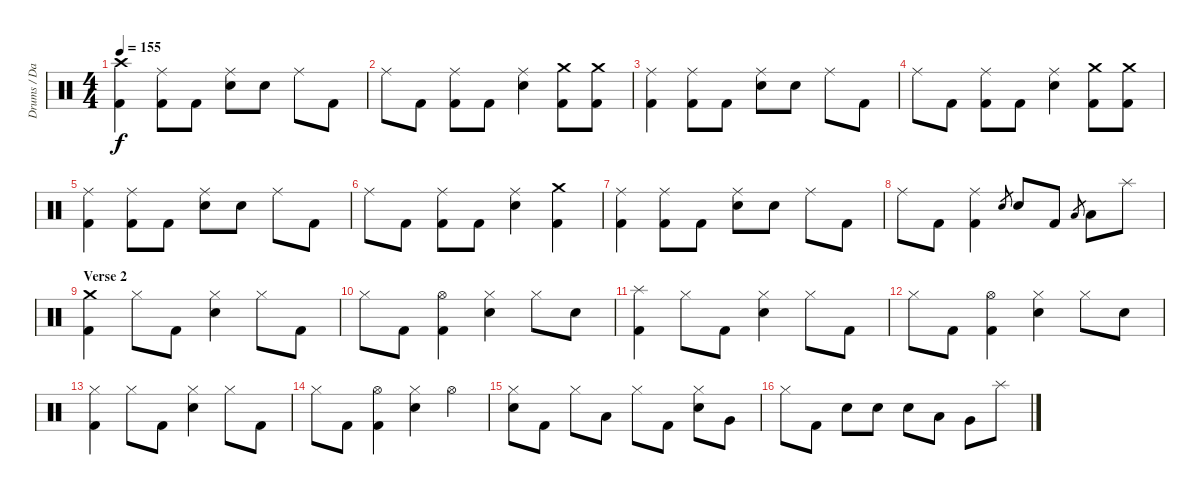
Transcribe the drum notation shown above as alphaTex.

\track ("Drums / David" "Drums / Da") {instrument percussion}
\staff {score}
\articulation defaults
\ts (4 4)
\tempo 155
\clef neutral
\ks c
("Crash high (hit)" "Kick (hit) 2").4{dy f} ("Ride (middle)" "Kick (hit) 2").8 "Kick (hit) 2".8 ("Ride (middle)" "Electric Snare (hit)").8 "Electric Snare (hit)".8 "Ride (middle)".8 "Kick (hit) 2".8 |
"Ride (middle)".8 "Kick (hit) 2".8 ("Ride (middle)" "Kick (hit) 2").8 "Kick (hit) 2".8 ("Ride (middle)" "Electric Snare (hit)").4 ("Crash medium (hit)" "Kick (hit) 2").8 ("Crash medium (hit)" "Kick (hit) 2").8 |
("Ride (middle)" "Kick (hit) 2").4 ("Ride (middle)" "Kick (hit) 2").8 "Kick (hit) 2".8 ("Ride (middle)" "Electric Snare (hit)").8 "Electric Snare (hit)".8 "Ride (middle)".8 "Kick (hit) 2".8 |
"Ride (middle)".8 "Kick (hit) 2".8 ("Ride (middle)" "Kick (hit) 2").8 "Kick (hit) 2".8 ("Ride (middle)" "Electric Snare (hit)").4 ("Crash medium (hit)" "Kick (hit) 2").8 ("Crash medium (hit)" "Kick (hit) 2").8 |
("Ride (middle)" "Kick (hit) 2").4 ("Ride (middle)" "Kick (hit) 2").8 "Kick (hit) 2".8 ("Ride (middle)" "Electric Snare (hit)").8 "Electric Snare (hit)".8 "Ride (middle)".8 "Kick (hit) 2".8 |
"Ride (middle)".8 "Kick (hit) 2".8 ("Ride (middle)" "Kick (hit) 2").8 "Kick (hit) 2".8 ("Ride (middle)" "Electric Snare (hit)").4 ("Crash medium (hit)" "Kick (hit) 2").4 |
("Ride (middle)" "Kick (hit) 2").4 ("Ride (middle)" "Kick (hit) 2").8 "Kick (hit) 2".8 ("Ride (middle)" "Electric Snare (hit)").8 "Electric Snare (hit)".8 "Ride (middle)".8 "Kick (hit) 2".8 |
"Ride (middle)".8 "Kick (hit) 2".8 ("Ride (middle)" "Kick (hit) 2").4 "Electric Snare (hit)".8{gr} "Electric Snare (hit)".8 "Kick (hit) 2".8 "Low Tom (hit)".8{gr} "Low Tom (hit)".8 "Splash (hit)".8 |
\section ("" "Verse 2")
("Crash medium (hit)" "Kick (hit) 2").4 "Hi-Hat (closed)".8 "Kick (hit) 2".8 ("Hi-Hat (closed)" "Electric Snare (hit)").4 "Hi-Hat (closed)".8 "Kick (hit) 2".8 |
"Hi-Hat (closed)".8 "Kick (hit) 2".8 ("Hi-Hat (open)" "Kick (hit) 2").4 ("Hi-Hat (closed)" "Electric Snare (hit)").4 "Hi-Hat (closed)".8 "Electric Snare (hit)".8 |
("Splash (hit)" "Kick (hit) 2").4 "Hi-Hat (closed)".8 "Kick (hit) 2".8 ("Hi-Hat (closed)" "Electric Snare (hit)").4 "Hi-Hat (closed)".8 "Kick (hit) 2".8 |
"Hi-Hat (closed)".8 "Kick (hit) 2".8 ("Hi-Hat (open)" "Kick (hit) 2").4 ("Hi-Hat (closed)" "Electric Snare (hit)").4 "Hi-Hat (closed)".8 "Electric Snare (hit)".8 |
("Hi-Hat (closed)" "Kick (hit) 2").4 "Hi-Hat (closed)".8 "Kick (hit) 2".8 ("Hi-Hat (closed)" "Electric Snare (hit)").4 "Hi-Hat (closed)".8 "Kick (hit) 2".8 |
"Hi-Hat (closed)".8 "Kick (hit) 2".8 ("Hi-Hat (open)" "Kick (hit) 2").4 ("Hi-Hat (closed)" "Electric Snare (hit)").4 "Hi-Hat (open)".4 |
("Hi-Hat (closed)" "Electric Snare (hit)").8 "Kick (hit) 2".8 "Hi-Hat (closed)".8 "Low Tom (hit)".8 "Hi-Hat (closed)".8 "Kick (hit) 2".8 ("Hi-Hat (closed)" "Electric Snare (hit)").8 "Very Low Tom (hit)".8 |
"Hi-Hat (closed)".8 "Kick (hit) 2".8 "Electric Snare (hit)".8 "Electric Snare (hit)".8 "Electric Snare (hit)".8 "Low Tom (hit)".8 "Very Low Tom (hit)".8 "Splash (hit)".8
